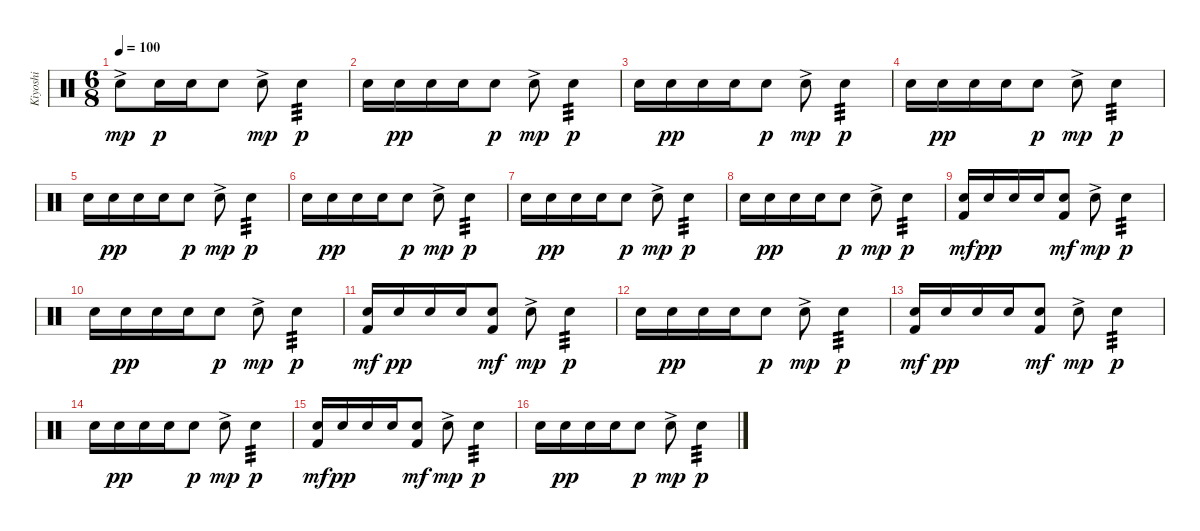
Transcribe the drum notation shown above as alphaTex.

\track ("Kiyoshi" "Kiyoshi") {instrument percussion}
\staff {score}
\articulation defaults
\ts (6 8)
\tempo 100
\clef neutral
\ks c "Electric Snare (hit)"{ac}.8{dy mp volume 12} "Electric Snare (hit)".16{dy p} "Electric Snare (hit)".16 "Electric Snare (hit)".8 "Electric Snare (hit)"{ac}.8{dy mp} "Electric Snare (hit)".4{tp 3 dy p}
|
"Electric Snare (hit)".16 "Electric Snare (hit)".16{dy pp} "Electric Snare (hit)".16 "Electric Snare (hit)".16 "Electric Snare (hit)".8{dy p} "Electric Snare (hit)"{ac}.8{dy mp} "Electric Snare (hit)".4{tp 3 dy p} |
"Electric Snare (hit)".16 "Electric Snare (hit)".16{dy pp} "Electric Snare (hit)".16 "Electric Snare (hit)".16 "Electric Snare (hit)".8{dy p} "Electric Snare (hit)"{ac}.8{dy mp} "Electric Snare (hit)".4{tp 3 dy p} |
"Electric Snare (hit)".16 "Electric Snare (hit)".16{dy pp} "Electric Snare (hit)".16 "Electric Snare (hit)".16 "Electric Snare (hit)".8{dy p} "Electric Snare (hit)"{ac}.8{dy mp} "Electric Snare (hit)".4{tp 3 dy p} |
"Electric Snare (hit)".16 "Electric Snare (hit)".16{dy pp} "Electric Snare (hit)".16 "Electric Snare (hit)".16 "Electric Snare (hit)".8{dy p} "Electric Snare (hit)"{ac}.8{dy mp} "Electric Snare (hit)".4{tp 3 dy p} |
"Electric Snare (hit)".16 "Electric Snare (hit)".16{dy pp} "Electric Snare (hit)".16 "Electric Snare (hit)".16 "Electric Snare (hit)".8{dy p} "Electric Snare (hit)"{ac}.8{dy mp} "Electric Snare (hit)".4{tp 3 dy p} |
"Electric Snare (hit)".16 "Electric Snare (hit)".16{dy pp} "Electric Snare (hit)".16 "Electric Snare (hit)".16 "Electric Snare (hit)".8{dy p} "Electric Snare (hit)"{ac}.8{dy mp} "Electric Snare (hit)".4{tp 3 dy p} |
"Electric Snare (hit)".16 "Electric Snare (hit)".16{dy pp} "Electric Snare (hit)".16 "Electric Snare (hit)".16 "Electric Snare (hit)".8{dy p} "Electric Snare (hit)"{ac}.8{dy mp} "Electric Snare (hit)".4{tp 3 dy p} |
("Electric Snare (hit)" "Kick (hit) 2").16{dy mf} "Electric Snare (hit)".16{dy pp} "Electric Snare (hit)".16 "Electric Snare (hit)".16 ("Electric Snare (hit)" "Kick (hit) 2").8{dy mf} "Electric Snare (hit)"{ac}.8{dy mp} "Electric Snare (hit)".4{tp 3 dy p} |
"Electric Snare (hit)".16 "Electric Snare (hit)".16{dy pp} "Electric Snare (hit)".16 "Electric Snare (hit)".16 "Electric Snare (hit)".8{dy p} "Electric Snare (hit)"{ac}.8{dy mp} "Electric Snare (hit)".4{tp 3 dy p} |
("Electric Snare (hit)" "Kick (hit) 2").16{dy mf} "Electric Snare (hit)".16{dy pp} "Electric Snare (hit)".16 "Electric Snare (hit)".16 ("Electric Snare (hit)" "Kick (hit) 2").8{dy mf} "Electric Snare (hit)"{ac}.8{dy mp} "Electric Snare (hit)".4{tp 3 dy p} |
"Electric Snare (hit)".16 "Electric Snare (hit)".16{dy pp} "Electric Snare (hit)".16 "Electric Snare (hit)".16 "Electric Snare (hit)".8{dy p} "Electric Snare (hit)"{ac}.8{dy mp} "Electric Snare (hit)".4{tp 3 dy p} |
("Electric Snare (hit)" "Kick (hit) 2").16{dy mf} "Electric Snare (hit)".16{dy pp} "Electric Snare (hit)".16 "Electric Snare (hit)".16 ("Electric Snare (hit)" "Kick (hit) 2").8{dy mf} "Electric Snare (hit)"{ac}.8{dy mp} "Electric Snare (hit)".4{tp 3 dy p} |
"Electric Snare (hit)".16 "Electric Snare (hit)".16{dy pp} "Electric Snare (hit)".16 "Electric Snare (hit)".16 "Electric Snare (hit)".8{dy p} "Electric Snare (hit)"{ac}.8{dy mp} "Electric Snare (hit)".4{tp 3 dy p} |
("Electric Snare (hit)" "Kick (hit) 2").16{dy mf} "Electric Snare (hit)".16{dy pp} "Electric Snare (hit)".16 "Electric Snare (hit)".16 ("Electric Snare (hit)" "Kick (hit) 2").8{dy mf} "Electric Snare (hit)"{ac}.8{dy mp} "Electric Snare (hit)".4{tp 3 dy p} |
"Electric Snare (hit)".16 "Electric Snare (hit)".16{dy pp} "Electric Snare (hit)".16 "Electric Snare (hit)".16 "Electric Snare (hit)".8{dy p} "Electric Snare (hit)"{ac}.8{dy mp} "Electric Snare (hit)".4{tp 3 dy p}
